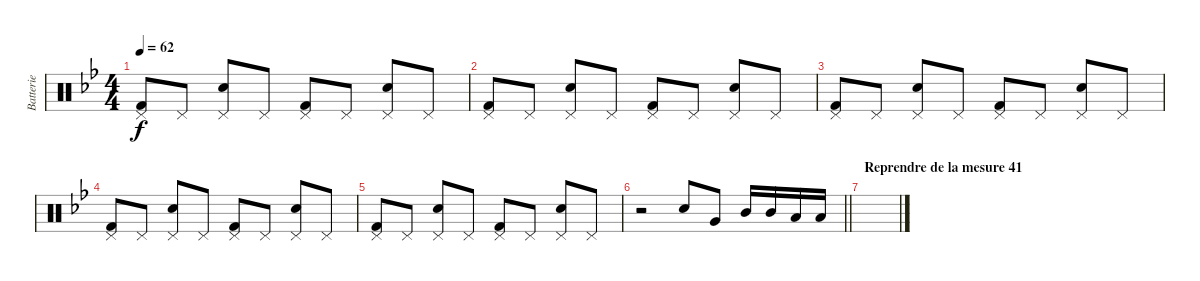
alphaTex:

\track ("Batterie" "Batterie") {instrument percussion}
\staff {score}
\articulation defaults
\ts (4 4)
\tempo 62
\clef neutral
\ks bb
("Kick (hit) 2" "Pedal Hi-Hat (hit)").8{dy f} "Pedal Hi-Hat (hit)".8 ("Pedal Hi-Hat (hit)" "Snare (hit) 2").8 "Pedal Hi-Hat (hit)".8 ("Kick (hit) 2" "Pedal Hi-Hat (hit)").8 "Pedal Hi-Hat (hit)".8 ("Pedal Hi-Hat (hit)" "Snare (hit) 2").8 "Pedal Hi-Hat (hit)".8 |
("Kick (hit) 2" "Pedal Hi-Hat (hit)").8 "Pedal Hi-Hat (hit)".8 ("Pedal Hi-Hat (hit)" "Snare (hit) 2").8 "Pedal Hi-Hat (hit)".8 ("Kick (hit) 2" "Pedal Hi-Hat (hit)").8 "Pedal Hi-Hat (hit)".8 ("Pedal Hi-Hat (hit)" "Snare (hit) 2").8 "Pedal Hi-Hat (hit)".8 |
("Kick (hit) 2" "Pedal Hi-Hat (hit)").8 "Pedal Hi-Hat (hit)".8 ("Pedal Hi-Hat (hit)" "Snare (hit) 2").8 "Pedal Hi-Hat (hit)".8 ("Kick (hit) 2" "Pedal Hi-Hat (hit)").8 "Pedal Hi-Hat (hit)".8 ("Pedal Hi-Hat (hit)" "Snare (hit) 2").8 "Pedal Hi-Hat (hit)".8 |
("Kick (hit) 2" "Pedal Hi-Hat (hit)").8 "Pedal Hi-Hat (hit)".8 ("Pedal Hi-Hat (hit)" "Snare (hit) 2").8 "Pedal Hi-Hat (hit)".8 ("Kick (hit) 2" "Pedal Hi-Hat (hit)").8 "Pedal Hi-Hat (hit)".8 ("Pedal Hi-Hat (hit)" "Snare (hit) 2").8 "Pedal Hi-Hat (hit)".8 |
("Kick (hit) 2" "Pedal Hi-Hat (hit)").8 "Pedal Hi-Hat (hit)".8 ("Pedal Hi-Hat (hit)" "Snare (hit) 2").8 "Pedal Hi-Hat (hit)".8 ("Kick (hit) 2" "Pedal Hi-Hat (hit)").8 "Pedal Hi-Hat (hit)".8 ("Pedal Hi-Hat (hit)" "Snare (hit) 2").8 "Pedal Hi-Hat (hit)".8 |
\barLineRight lightlight
r.2 "Snare (hit) 2".8 "Very Low Tom (hit)".8 "Mid Tom (hit)".16 "Mid Tom (hit)".16 "Low Tom (hit)".16 "Low Tom (hit)".16 |
\section ("" "Reprendre de la mesure 41")
